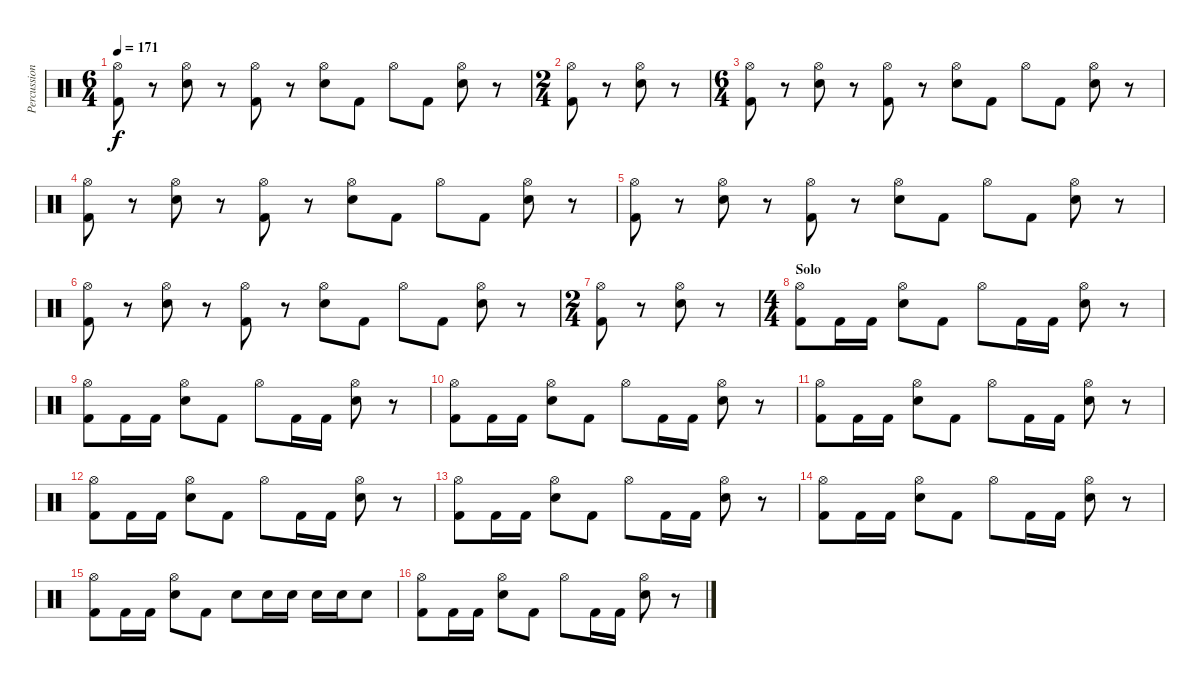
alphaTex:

\track ("Percussions" "Percussion") {instrument percussion}
\staff {score}
\articulation defaults
\ts (6 4)
\tempo 171
\clef neutral
\ks c
("Hi-Hat (open)" "Kick (hit) 2").8{dy f} r.8 ("Hi-Hat (open)" "Electric Snare (hit)").8 r.8 ("Hi-Hat (open)" "Kick (hit) 2").8 r.8 ("Hi-Hat (open)" "Electric Snare (hit)").8 "Kick (hit) 2".8 "Hi-Hat (open)".8 "Kick (hit) 2".8 ("Hi-Hat (open)" "Electric Snare (hit)").8 r.8 |
\ts (2 4)
("Hi-Hat (open)" "Kick (hit) 2").8 r.8 ("Hi-Hat (open)" "Electric Snare (hit)").8 r.8 |
\ts (6 4)
("Hi-Hat (open)" "Kick (hit) 2").8 r.8 ("Hi-Hat (open)" "Electric Snare (hit)").8 r.8 ("Hi-Hat (open)" "Kick (hit) 2").8 r.8 ("Hi-Hat (open)" "Electric Snare (hit)").8 "Kick (hit) 2".8 "Hi-Hat (open)".8 "Kick (hit) 2".8 ("Hi-Hat (open)" "Electric Snare (hit)").8 r.8 |
("Hi-Hat (open)" "Kick (hit) 2").8 r.8 ("Hi-Hat (open)" "Electric Snare (hit)").8 r.8 ("Hi-Hat (open)" "Kick (hit) 2").8 r.8 ("Hi-Hat (open)" "Electric Snare (hit)").8 "Kick (hit) 2".8 "Hi-Hat (open)".8 "Kick (hit) 2".8 ("Hi-Hat (open)" "Electric Snare (hit)").8 r.8 |
("Hi-Hat (open)" "Kick (hit) 2").8 r.8 ("Hi-Hat (open)" "Electric Snare (hit)").8 r.8 ("Hi-Hat (open)" "Kick (hit) 2").8 r.8 ("Hi-Hat (open)" "Electric Snare (hit)").8 "Kick (hit) 2".8 "Hi-Hat (open)".8 "Kick (hit) 2".8 ("Hi-Hat (open)" "Electric Snare (hit)").8 r.8 |
("Hi-Hat (open)" "Kick (hit) 2").8 r.8 ("Hi-Hat (open)" "Electric Snare (hit)").8 r.8 ("Hi-Hat (open)" "Kick (hit) 2").8 r.8 ("Hi-Hat (open)" "Electric Snare (hit)").8 "Kick (hit) 2".8 "Hi-Hat (open)".8 "Kick (hit) 2".8 ("Hi-Hat (open)" "Electric Snare (hit)").8 r.8 |
\ts (2 4)
("Hi-Hat (open)" "Kick (hit) 2").8 r.8 ("Hi-Hat (open)" "Electric Snare (hit)").8 r.8 |
\ts (4 4)
\section ("" "Solo")
("Hi-Hat (open)" "Kick (hit) 2").8 "Kick (hit) 2".16 "Kick (hit) 2".16 ("Hi-Hat (open)" "Electric Snare (hit)").8 "Kick (hit) 2".8 "Hi-Hat (open)".8 "Kick (hit) 2".16 "Kick (hit) 2".16 ("Hi-Hat (open)" "Electric Snare (hit)").8 r.8 |
("Hi-Hat (open)" "Kick (hit) 2").8 "Kick (hit) 2".16 "Kick (hit) 2".16 ("Hi-Hat (open)" "Electric Snare (hit)").8 "Kick (hit) 2".8 "Hi-Hat (open)".8 "Kick (hit) 2".16 "Kick (hit) 2".16 ("Hi-Hat (open)" "Electric Snare (hit)").8 r.8 |
("Hi-Hat (open)" "Kick (hit) 2").8 "Kick (hit) 2".16 "Kick (hit) 2".16 ("Hi-Hat (open)" "Electric Snare (hit)").8 "Kick (hit) 2".8 "Hi-Hat (open)".8 "Kick (hit) 2".16 "Kick (hit) 2".16 ("Hi-Hat (open)" "Electric Snare (hit)").8 r.8 |
("Hi-Hat (open)" "Kick (hit) 2").8 "Kick (hit) 2".16 "Kick (hit) 2".16 ("Hi-Hat (open)" "Electric Snare (hit)").8 "Kick (hit) 2".8 "Hi-Hat (open)".8 "Kick (hit) 2".16 "Kick (hit) 2".16 ("Hi-Hat (open)" "Electric Snare (hit)").8 r.8 |
("Hi-Hat (open)" "Kick (hit) 2").8 "Kick (hit) 2".16 "Kick (hit) 2".16 ("Hi-Hat (open)" "Electric Snare (hit)").8 "Kick (hit) 2".8 "Hi-Hat (open)".8 "Kick (hit) 2".16 "Kick (hit) 2".16 ("Hi-Hat (open)" "Electric Snare (hit)").8 r.8 |
("Hi-Hat (open)" "Kick (hit) 2").8 "Kick (hit) 2".16 "Kick (hit) 2".16 ("Hi-Hat (open)" "Electric Snare (hit)").8 "Kick (hit) 2".8 "Hi-Hat (open)".8 "Kick (hit) 2".16 "Kick (hit) 2".16 ("Hi-Hat (open)" "Electric Snare (hit)").8 r.8 |
("Hi-Hat (open)" "Kick (hit) 2").8 "Kick (hit) 2".16 "Kick (hit) 2".16 ("Hi-Hat (open)" "Electric Snare (hit)").8 "Kick (hit) 2".8 "Hi-Hat (open)".8 "Kick (hit) 2".16 "Kick (hit) 2".16 ("Hi-Hat (open)" "Electric Snare (hit)").8 r.8 |
("Hi-Hat (open)" "Kick (hit) 2").8 "Kick (hit) 2".16 "Kick (hit) 2".16 ("Hi-Hat (open)" "Electric Snare (hit)").8 "Kick (hit) 2".8 "Electric Snare (hit)".8 "Electric Snare (hit)".16 "Electric Snare (hit)".16 "Electric Snare (hit)".16 "Electric Snare (hit)".16 "Electric Snare (hit)".8 |
("Hi-Hat (open)" "Kick (hit) 2").8 "Kick (hit) 2".16 "Kick (hit) 2".16 ("Hi-Hat (open)" "Electric Snare (hit)").8 "Kick (hit) 2".8 "Hi-Hat (open)".8 "Kick (hit) 2".16 "Kick (hit) 2".16 ("Hi-Hat (open)" "Electric Snare (hit)").8 r.8
